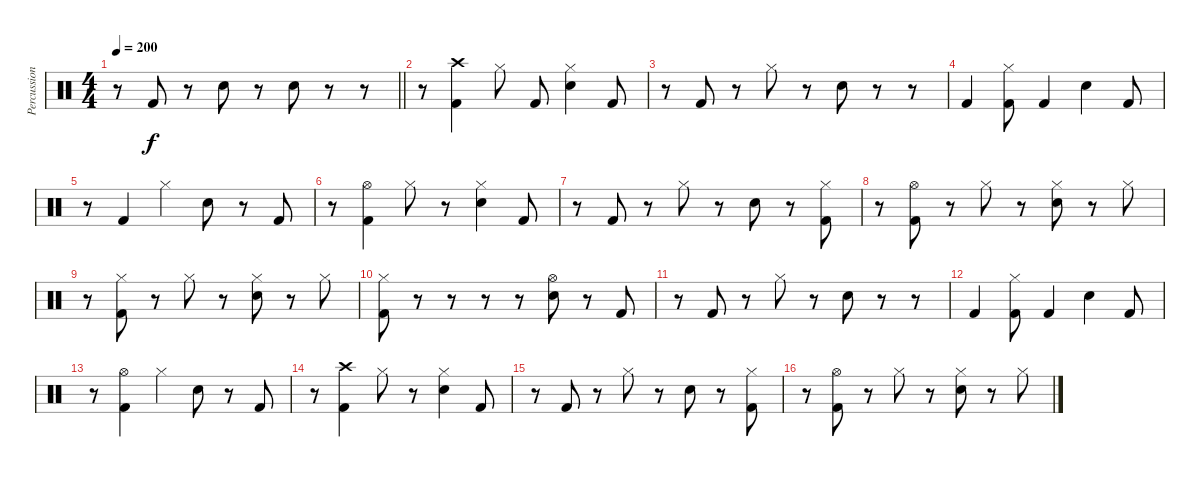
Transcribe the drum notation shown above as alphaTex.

\track ("Percussion" "Percussion") {instrument percussion}
\staff {score}
\articulation defaults
\ts (4 4)
\tempo 200
\clef neutral
\barLineRight lightlight
\ks c
r.8{dy f} "Kick (hit) 2".8 r.8 "Snare (hit) 2".8 r.8 "Snare (hit) 2".8 r.8 r.8 |
r.8 ("Kick (hit) 2" "Crash high (hit)").4 "Hi-Hat (closed)".8 "Kick (hit) 2".8 ("Snare (hit) 2" "Hi-Hat (closed)").4 "Kick (hit) 2".8 |
r.8 "Kick (hit) 2".8 r.8 "Hi-Hat (closed)".8 r.8 "Snare (hit) 2".8 r.8 r.8 |
"Kick (hit) 2".4 ("Kick (hit) 2" "Hi-Hat (closed)").8 "Kick (hit) 2".4 "Snare (hit) 2".4 "Kick (hit) 2".8 |
r.8 "Kick (hit) 2".4 "Hi-Hat (closed)".4 "Snare (hit) 2".8 r.8 "Kick (hit) 2".8 |
r.8 ("Kick (hit) 2" "Hi-Hat (open)").4 "Hi-Hat (closed)".8 r.8 ("Snare (hit) 2" "Hi-Hat (closed)").4 "Kick (hit) 2".8 |
r.8 "Kick (hit) 2".8 r.8 "Hi-Hat (closed)".8 r.8 "Snare (hit) 2".8 r.8 ("Kick (hit) 2" "Hi-Hat (closed)").8 |
r.8 ("Kick (hit) 2" "Hi-Hat (open)").8 r.8 "Hi-Hat (closed)".8 r.8 ("Snare (hit) 2" "Hi-Hat (closed)").8 r.8 "Hi-Hat (closed)".8 |
r.8 ("Kick (hit) 2" "Hi-Hat (closed)").8 r.8 "Hi-Hat (closed)".8 r.8 ("Snare (hit) 2" "Hi-Hat (closed)").8 r.8 "Hi-Hat (closed)".8 |
("Kick (hit) 2" "Hi-Hat (closed)").8 r.8 r.8 r.8 r.8 ("Snare (hit) 2" "Hi-Hat (open)").8 r.8 "Kick (hit) 2".8 |
r.8 "Kick (hit) 2".8 r.8 "Hi-Hat (closed)".8 r.8 "Snare (hit) 2".8 r.8 r.8 |
"Kick (hit) 2".4 ("Kick (hit) 2" "Hi-Hat (closed)").8 "Kick (hit) 2".4 "Snare (hit) 2".4 "Kick (hit) 2".8 |
r.8 ("Kick (hit) 2" "Hi-Hat (open)").4 "Hi-Hat (closed)".4 "Snare (hit) 2".8 r.8 "Kick (hit) 2".8 |
r.8 ("Kick (hit) 2" "Crash high (hit)").4 "Hi-Hat (closed)".8 r.8 ("Snare (hit) 2" "Hi-Hat (closed)").4 "Kick (hit) 2".8 |
r.8 "Kick (hit) 2".8 r.8 "Hi-Hat (closed)".8 r.8 "Snare (hit) 2".8 r.8 ("Kick (hit) 2" "Hi-Hat (closed)").8 |
r.8 ("Kick (hit) 2" "Hi-Hat (open)").8 r.8 "Hi-Hat (closed)".8 r.8 ("Snare (hit) 2" "Hi-Hat (closed)").8 r.8 "Hi-Hat (closed)".8
